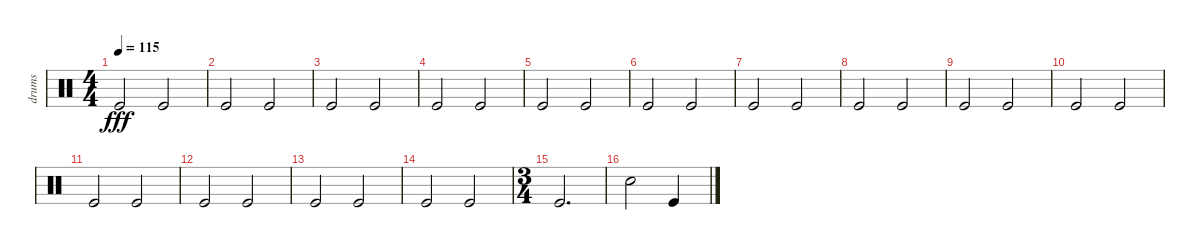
\track ("drums" "drums") {instrument percussion}
\staff {score}
\articulation defaults
\ts (4 4)
\tempo 115
\clef neutral
\ks c "Kick (hit)".2{dy fff} "Kick (hit)".2
|
"Kick (hit)".2 "Kick (hit)".2 |
"Kick (hit)".2 "Kick (hit)".2 |
"Kick (hit)".2 "Kick (hit)".2 |
"Kick (hit)".2 "Kick (hit)".2 |
"Kick (hit)".2 "Kick (hit)".2 |
"Kick (hit)".2 "Kick (hit)".2 |
"Kick (hit)".2 "Kick (hit)".2 |
"Kick (hit)".2 "Kick (hit)".2 |
"Kick (hit)".2 "Kick (hit)".2 |
"Kick (hit)".2 "Kick (hit)".2 |
"Kick (hit)".2 "Kick (hit)".2 |
"Kick (hit)".2 "Kick (hit)".2 |
"Kick (hit)".2 "Kick (hit)".2 |
\ts (3 4)
"Kick (hit)".2{d} |
"Electric Snare (hit)".2 "Kick (hit)".4
